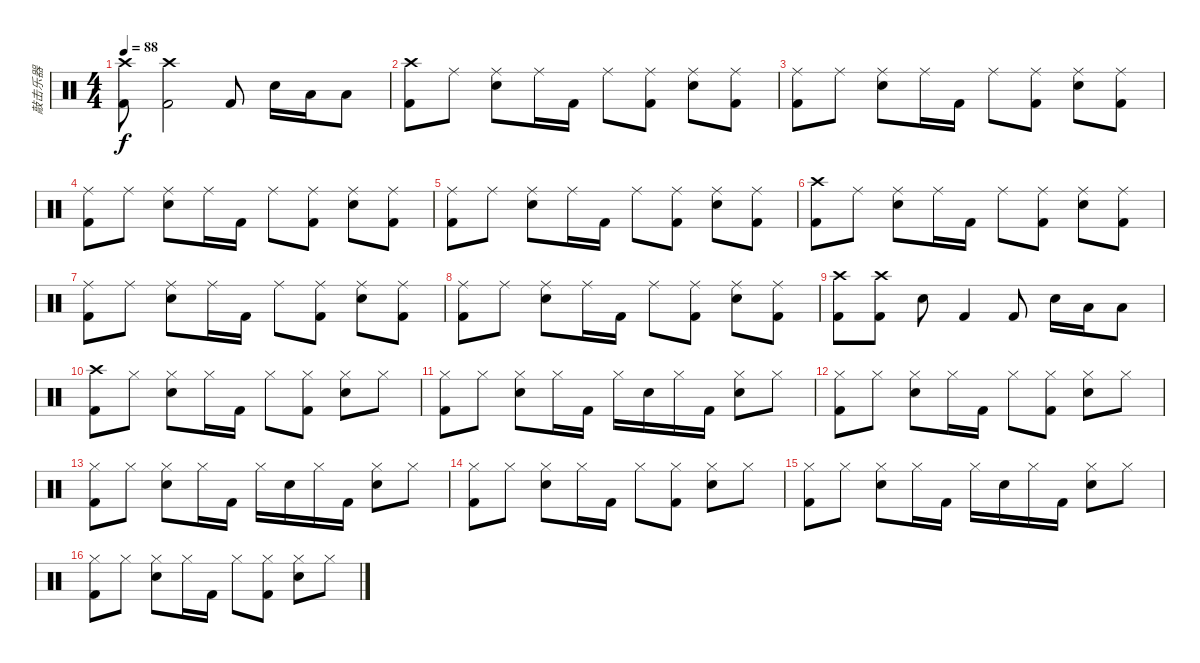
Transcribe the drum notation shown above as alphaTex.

\track ("敲击乐器" "敲击乐器") {instrument percussion}
\staff {score}
\articulation defaults
\ts (4 4)
\tempo 88
\clef neutral
\ks c
("Crash high (hit)" "Kick (hit) 2").8{dy f} ("Crash high (hit)" "Kick (hit) 2").2 "Kick (hit) 2".8 "Electric Snare (hit)".16 "Low Floor Tom (hit)".16 "Low Tom (hit)".8 |
("Crash high (hit)" "Kick (hit) 2").8 "Ride (middle)".8 ("Ride (middle)" "Electric Snare (hit)").8 "Ride (middle)".16 "Kick (hit) 2".16 "Ride (middle)".8 ("Ride (middle)" "Kick (hit) 2").8 ("Ride (middle)" "Electric Snare (hit)").8 ("Ride (middle)" "Kick (hit) 2").8 |
("Ride (middle)" "Kick (hit) 2").8 "Ride (middle)".8 ("Ride (middle)" "Electric Snare (hit)").8 "Ride (middle)".16 "Kick (hit) 2".16 "Ride (middle)".8 ("Ride (middle)" "Kick (hit) 2").8 ("Ride (middle)" "Electric Snare (hit)").8 ("Ride (middle)" "Kick (hit) 2").8 |
("Ride (middle)" "Kick (hit) 2").8 "Ride (middle)".8 ("Ride (middle)" "Electric Snare (hit)").8 "Ride (middle)".16 "Kick (hit) 2".16 "Ride (middle)".8 ("Ride (middle)" "Kick (hit) 2").8 ("Ride (middle)" "Electric Snare (hit)").8 ("Ride (middle)" "Kick (hit) 2").8 |
("Ride (middle)" "Kick (hit) 2").8 "Ride (middle)".8 ("Ride (middle)" "Electric Snare (hit)").8 "Ride (middle)".16 "Kick (hit) 2".16 "Ride (middle)".8 ("Ride (middle)" "Kick (hit) 2").8 ("Ride (middle)" "Electric Snare (hit)").8 ("Ride (middle)" "Kick (hit) 2").8 |
("Crash high (hit)" "Kick (hit) 2").8 "Ride (middle)".8 ("Ride (middle)" "Electric Snare (hit)").8 "Ride (middle)".16 "Kick (hit) 2".16 "Ride (middle)".8 ("Ride (middle)" "Kick (hit) 2").8 ("Ride (middle)" "Electric Snare (hit)").8 ("Ride (middle)" "Kick (hit) 2").8 |
("Ride (middle)" "Kick (hit) 2").8 "Ride (middle)".8 ("Ride (middle)" "Electric Snare (hit)").8 "Ride (middle)".16 "Kick (hit) 2".16 "Ride (middle)".8 ("Ride (middle)" "Kick (hit) 2").8 ("Ride (middle)" "Electric Snare (hit)").8 ("Ride (middle)" "Kick (hit) 2").8 |
("Ride (middle)" "Kick (hit) 2").8 "Ride (middle)".8 ("Ride (middle)" "Electric Snare (hit)").8 "Ride (middle)".16 "Kick (hit) 2".16 "Ride (middle)".8 ("Ride (middle)" "Kick (hit) 2").8 ("Ride (middle)" "Electric Snare (hit)").8 ("Ride (middle)" "Kick (hit) 2").8 |
("Crash high (hit)" "Kick (hit) 2").8 ("Crash high (hit)" "Kick (hit) 2").8 "Electric Snare (hit)".8 "Kick (hit) 2".4 "Kick (hit) 2".8 "Electric Snare (hit)".16 "Low Floor Tom (hit)".16 "Low Tom (hit)".8 |
("Crash high (hit)" "Kick (hit) 2").8 "Hi-Hat (closed)".8 ("Hi-Hat (closed)" "Electric Snare (hit)").8 "Hi-Hat (closed)".16 "Kick (hit) 2".16 "Hi-Hat (closed)".8 ("Hi-Hat (closed)" "Kick (hit) 2").8 ("Hi-Hat (closed)" "Electric Snare (hit)").8 "Hi-Hat (closed)".8 |
("Hi-Hat (closed)" "Kick (hit) 2").8 "Hi-Hat (closed)".8 ("Hi-Hat (closed)" "Electric Snare (hit)").8 "Hi-Hat (closed)".16 "Kick (hit) 2".16 "Hi-Hat (closed)".16 "Electric Snare (hit)".16 "Hi-Hat (closed)".16 "Kick (hit) 2".16 ("Hi-Hat (closed)" "Electric Snare (hit)").8 "Hi-Hat (closed)".8 |
("Hi-Hat (closed)" "Kick (hit) 2").8 "Hi-Hat (closed)".8 ("Hi-Hat (closed)" "Electric Snare (hit)").8 "Hi-Hat (closed)".16 "Kick (hit) 2".16 "Hi-Hat (closed)".8 ("Hi-Hat (closed)" "Kick (hit) 2").8 ("Hi-Hat (closed)" "Electric Snare (hit)").8 "Hi-Hat (closed)".8 |
("Hi-Hat (closed)" "Kick (hit) 2").8 "Hi-Hat (closed)".8 ("Hi-Hat (closed)" "Electric Snare (hit)").8 "Hi-Hat (closed)".16 "Kick (hit) 2".16 "Hi-Hat (closed)".16 "Electric Snare (hit)".16 "Hi-Hat (closed)".16 "Kick (hit) 2".16 ("Hi-Hat (closed)" "Electric Snare (hit)").8 "Hi-Hat (closed)".8 |
("Hi-Hat (closed)" "Kick (hit) 2").8 "Hi-Hat (closed)".8 ("Hi-Hat (closed)" "Electric Snare (hit)").8 "Hi-Hat (closed)".16 "Kick (hit) 2".16 "Hi-Hat (closed)".8 ("Hi-Hat (closed)" "Kick (hit) 2").8 ("Hi-Hat (closed)" "Electric Snare (hit)").8 "Hi-Hat (closed)".8 |
("Hi-Hat (closed)" "Kick (hit) 2").8 "Hi-Hat (closed)".8 ("Hi-Hat (closed)" "Electric Snare (hit)").8 "Hi-Hat (closed)".16 "Kick (hit) 2".16 "Hi-Hat (closed)".16 "Electric Snare (hit)".16 "Hi-Hat (closed)".16 "Kick (hit) 2".16 ("Hi-Hat (closed)" "Electric Snare (hit)").8 "Hi-Hat (closed)".8 |
("Hi-Hat (closed)" "Kick (hit) 2").8 "Hi-Hat (closed)".8 ("Hi-Hat (closed)" "Electric Snare (hit)").8 "Hi-Hat (closed)".16 "Kick (hit) 2".16 "Hi-Hat (closed)".8 ("Hi-Hat (closed)" "Kick (hit) 2").8 ("Hi-Hat (closed)" "Electric Snare (hit)").8 "Hi-Hat (closed)".8
